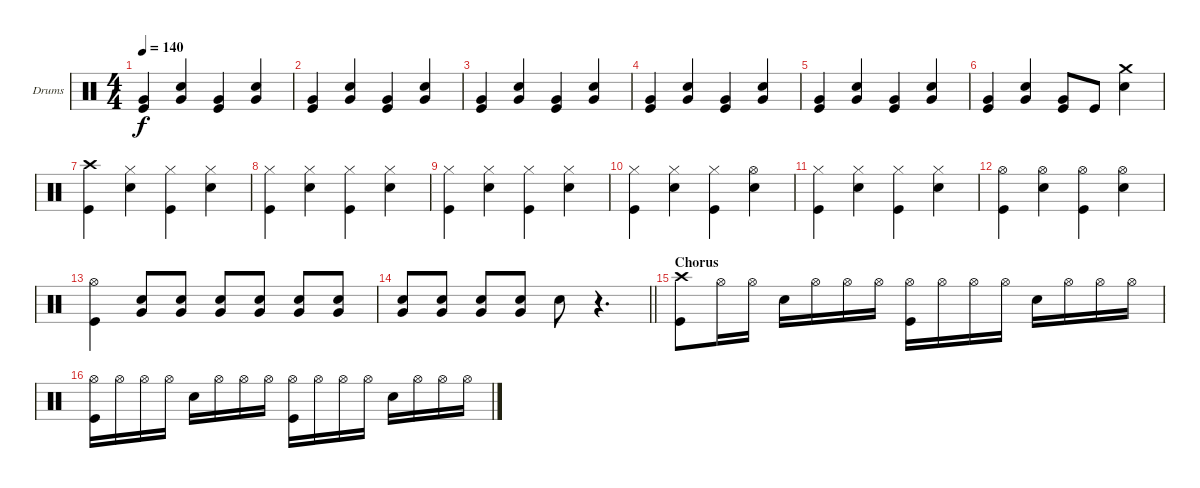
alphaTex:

\bracketExtendMode groupsimilarinstruments
\firstSystemTrackNameOrientation horizontal
\otherSystemsTrackNameOrientation horizontal
\track ("Drumkit" "Drums") {instrument percussion}
\staff {score}
\articulation defaults
\ts (4 4)
\tempo 140
\clef neutral
\ks c
("Very Low Tom (hit)" "Kick (hit)").4{dy f} ("Very Low Tom (hit)" "Snare (hit) 2").4 ("Very Low Tom (hit)" "Kick (hit)").4 ("Very Low Tom (hit)" "Snare (hit) 2").4 |
("Very Low Tom (hit)" "Kick (hit)").4 ("Very Low Tom (hit)" "Snare (hit) 2").4 ("Very Low Tom (hit)" "Kick (hit)").4 ("Very Low Tom (hit)" "Snare (hit) 2").4 |
("Very Low Tom (hit)" "Kick (hit)").4 ("Very Low Tom (hit)" "Snare (hit) 2").4 ("Very Low Tom (hit)" "Kick (hit)").4 ("Very Low Tom (hit)" "Snare (hit) 2").4 |
("Very Low Tom (hit)" "Kick (hit)").4 ("Very Low Tom (hit)" "Snare (hit) 2").4 ("Very Low Tom (hit)" "Kick (hit)").4 ("Very Low Tom (hit)" "Snare (hit) 2").4 |
("Very Low Tom (hit)" "Kick (hit)").4 ("Very Low Tom (hit)" "Snare (hit) 2").4 ("Very Low Tom (hit)" "Kick (hit)").4 ("Very Low Tom (hit)" "Snare (hit) 2").4 |
("Very Low Tom (hit)" "Kick (hit)").4 ("Very Low Tom (hit)" "Snare (hit) 2").4 ("Very Low Tom (hit)" "Kick (hit)").8 "Kick (hit)".8 ("Crash medium (hit)" "Snare (hit) 2").4 |
("Crash high (hit)" "Kick (hit)").4 ("Hi-Hat (closed)" "Snare (hit) 2").4 ("Hi-Hat (closed)" "Kick (hit)").4 ("Hi-Hat (closed)" "Snare (hit) 2").4 |
("Hi-Hat (closed)" "Kick (hit)").4 ("Hi-Hat (closed)" "Snare (hit) 2").4 ("Hi-Hat (closed)" "Kick (hit)").4 ("Hi-Hat (closed)" "Snare (hit) 2").4 |
("Hi-Hat (closed)" "Kick (hit)").4 ("Hi-Hat (closed)" "Snare (hit) 2").4 ("Hi-Hat (closed)" "Kick (hit)").4 ("Hi-Hat (closed)" "Snare (hit) 2").4 |
("Hi-Hat (closed)" "Kick (hit)").4 ("Hi-Hat (closed)" "Snare (hit) 2").4 ("Hi-Hat (closed)" "Kick (hit)").4 ("Hi-Hat (open)" "Snare (hit) 2").4 |
("Hi-Hat (closed)" "Kick (hit)").4 ("Hi-Hat (closed)" "Snare (hit) 2").4 ("Hi-Hat (closed)" "Kick (hit)").4 ("Hi-Hat (closed)" "Snare (hit) 2").4 |
("Hi-Hat (open)" "Kick (hit)").4 ("Hi-Hat (open)" "Snare (hit) 2").4 ("Hi-Hat (open)" "Kick (hit)").4 ("Hi-Hat (open)" "Snare (hit) 2").4 |
("Hi-Hat (open)" "Kick (hit)").4 ("Very Low Tom (hit)" "Snare (hit) 2").8 ("Very Low Tom (hit)" "Snare (hit) 2").8 ("Very Low Tom (hit)" "Snare (hit) 2").8 ("Very Low Tom (hit)" "Snare (hit) 2").8 ("Very Low Tom (hit)" "Snare (hit) 2").8 ("Very Low Tom (hit)" "Snare (hit) 2").8 |
\barLineRight lightlight
("Very Low Tom (hit)" "Snare (hit) 2").8 ("Very Low Tom (hit)" "Snare (hit) 2").8 ("Very Low Tom (hit)" "Snare (hit) 2").8 ("Very Low Tom (hit)" "Snare (hit) 2").8 "Snare (hit) 2".8 r.4{d} |
\section ("" "Chorus")
("Crash high (hit)" "Kick (hit)").8 "Hi-Hat (open)".16 "Hi-Hat (open)".16 "Snare (hit) 2".16 "Hi-Hat (open)".16 "Hi-Hat (open)".16 "Hi-Hat (open)".16 ("Hi-Hat (open)" "Kick (hit)").16 "Hi-Hat (open)".16 "Hi-Hat (open)".16 "Hi-Hat (open)".16 "Snare (hit) 2".16 "Hi-Hat (open)".16 "Hi-Hat (open)".16 "Hi-Hat (open)".16 |
("Hi-Hat (open)" "Kick (hit)").16 "Hi-Hat (open)".16 "Hi-Hat (open)".16 "Hi-Hat (open)".16 "Snare (hit) 2".16 "Hi-Hat (open)".16 "Hi-Hat (open)".16 "Hi-Hat (open)".16 ("Hi-Hat (open)" "Kick (hit)").16 "Hi-Hat (open)".16 "Hi-Hat (open)".16 "Hi-Hat (open)".16 "Snare (hit) 2".16 "Hi-Hat (open)".16 "Hi-Hat (open)".16 "Hi-Hat (open)".16
